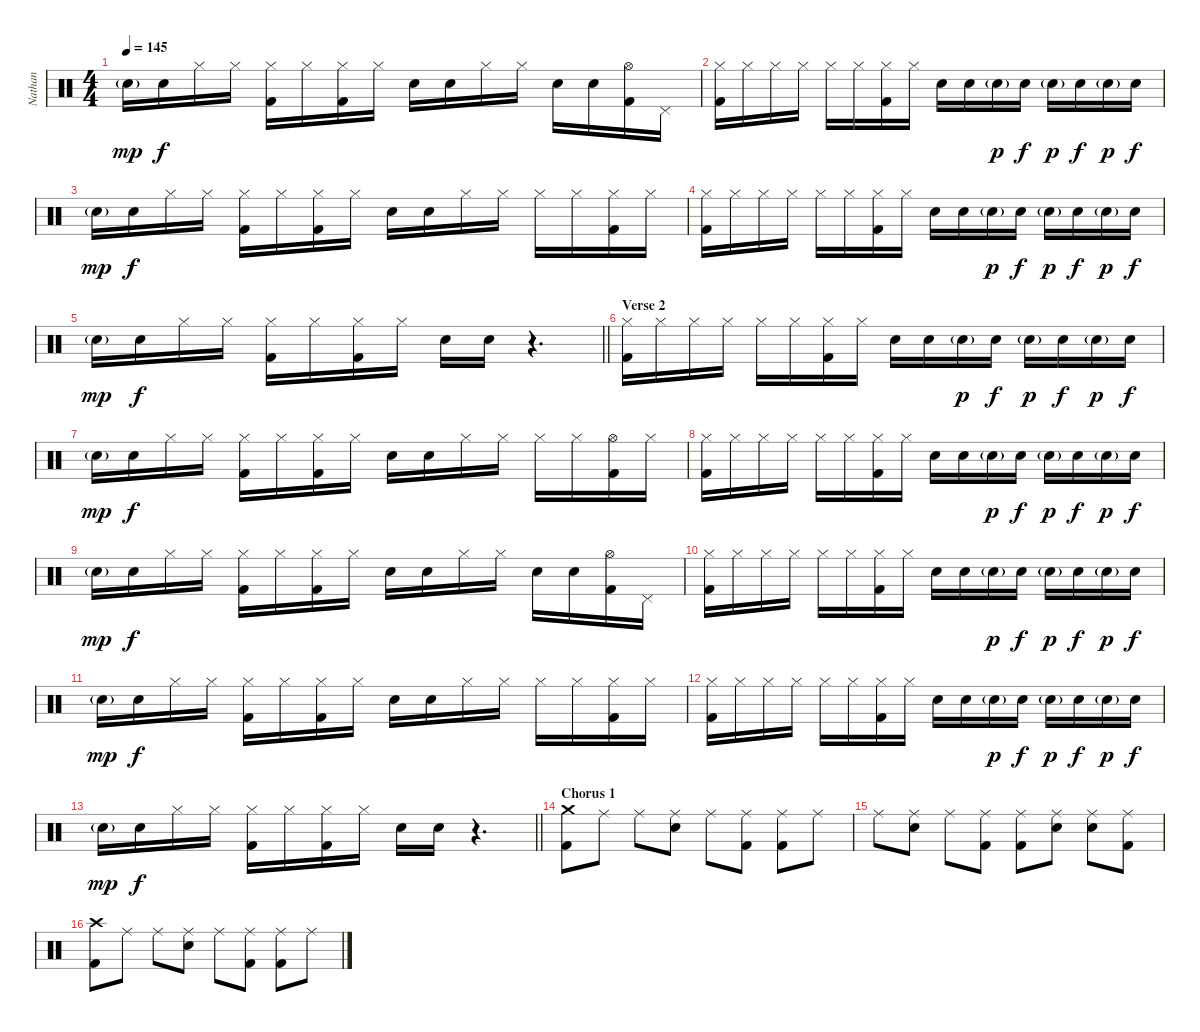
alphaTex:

\track ("Nathan" "Nathan") {instrument percussion}
\staff {score}
\articulation defaults
\ts (4 4)
\tempo 145
\clef neutral
\ks c "Electric Snare (hit)"{g}.16{dy mp} "Electric Snare (hit)".16{dy f} "Hi-Hat (closed)".16 "Hi-Hat (closed)".16
("Hi-Hat (closed)" "Kick (hit) 2").16 "Hi-Hat (closed)".16 ("Hi-Hat (closed)" "Kick (hit) 2").16 "Hi-Hat (closed)".16 "Electric Snare (hit)".16 "Electric Snare (hit)".16 "Hi-Hat (closed)".16 "Hi-Hat (closed)".16 "Electric Snare (hit)".16 "Electric Snare (hit)".16 ("Hi-Hat (open)" "Kick (hit) 2").16 "Pedal Hi-Hat (hit)".16 |
("Hi-Hat (closed)" "Kick (hit) 2").16 "Hi-Hat (closed)".16 "Hi-Hat (closed)".16 "Hi-Hat (closed)".16 "Hi-Hat (closed)".16 "Hi-Hat (closed)".16 ("Hi-Hat (closed)" "Kick (hit) 2").16 "Hi-Hat (closed)".16 "Electric Snare (hit)".16 "Electric Snare (hit)".16 "Electric Snare (hit)"{g}.16{dy p} "Electric Snare (hit)".16{dy f} "Electric Snare (hit)"{g}.16{dy p} "Electric Snare (hit)".16{dy f} "Electric Snare (hit)"{g}.16{dy p} "Electric Snare (hit)".16{dy f} |
"Electric Snare (hit)"{g}.16{dy mp} "Electric Snare (hit)".16{dy f} "Hi-Hat (closed)".16 "Hi-Hat (closed)".16 ("Hi-Hat (closed)" "Kick (hit) 2").16 "Hi-Hat (closed)".16 ("Hi-Hat (closed)" "Kick (hit) 2").16 "Hi-Hat (closed)".16 "Electric Snare (hit)".16 "Electric Snare (hit)".16 "Hi-Hat (closed)".16 "Hi-Hat (closed)".16 "Hi-Hat (closed)".16 "Hi-Hat (closed)".16 ("Hi-Hat (closed)" "Kick (hit) 2").16 "Hi-Hat (closed)".16 |
("Hi-Hat (closed)" "Kick (hit) 2").16 "Hi-Hat (closed)".16 "Hi-Hat (closed)".16 "Hi-Hat (closed)".16 "Hi-Hat (closed)".16 "Hi-Hat (closed)".16 ("Hi-Hat (closed)" "Kick (hit) 2").16 "Hi-Hat (closed)".16 "Electric Snare (hit)".16 "Electric Snare (hit)".16 "Electric Snare (hit)"{g}.16{dy p} "Electric Snare (hit)".16{dy f} "Electric Snare (hit)"{g}.16{dy p} "Electric Snare (hit)".16{dy f} "Electric Snare (hit)"{g}.16{dy p} "Electric Snare (hit)".16{dy f} |
\barLineRight lightlight "Electric Snare (hit)"{g}.16{dy mp} "Electric Snare (hit)".16{dy f} "Hi-Hat (closed)".16 "Hi-Hat (closed)".16
("Hi-Hat (closed)" "Kick (hit) 2").16 "Hi-Hat (closed)".16 ("Hi-Hat (closed)" "Kick (hit) 2").16 "Hi-Hat (closed)".16 "Electric Snare (hit)".16 "Electric Snare (hit)".16 r.4{d} |
\section ("" "Verse 2")
("Hi-Hat (closed)" "Kick (hit) 2").16 "Hi-Hat (closed)".16 "Hi-Hat (closed)".16 "Hi-Hat (closed)".16 "Hi-Hat (closed)".16 "Hi-Hat (closed)".16 ("Hi-Hat (closed)" "Kick (hit) 2").16 "Hi-Hat (closed)".16 "Electric Snare (hit)".16 "Electric Snare (hit)".16 "Electric Snare (hit)"{g}.16{dy p} "Electric Snare (hit)".16{dy f} "Electric Snare (hit)"{g}.16{dy p} "Electric Snare (hit)".16{dy f} "Electric Snare (hit)"{g}.16{dy p} "Electric Snare (hit)".16{dy f} |
"Electric Snare (hit)"{g}.16{dy mp} "Electric Snare (hit)".16{dy f} "Hi-Hat (closed)".16 "Hi-Hat (closed)".16 ("Hi-Hat (closed)" "Kick (hit) 2").16 "Hi-Hat (closed)".16 ("Hi-Hat (closed)" "Kick (hit) 2").16 "Hi-Hat (closed)".16 "Electric Snare (hit)".16 "Electric Snare (hit)".16 "Hi-Hat (closed)".16 "Hi-Hat (closed)".16 "Hi-Hat (closed)".16 "Hi-Hat (closed)".16 ("Hi-Hat (open)" "Kick (hit) 2").16 "Hi-Hat (closed)".16 |
("Hi-Hat (closed)" "Kick (hit) 2").16 "Hi-Hat (closed)".16 "Hi-Hat (closed)".16 "Hi-Hat (closed)".16 "Hi-Hat (closed)".16 "Hi-Hat (closed)".16 ("Hi-Hat (closed)" "Kick (hit) 2").16 "Hi-Hat (closed)".16 "Electric Snare (hit)".16 "Electric Snare (hit)".16 "Electric Snare (hit)"{g}.16{dy p} "Electric Snare (hit)".16{dy f} "Electric Snare (hit)"{g}.16{dy p} "Electric Snare (hit)".16{dy f} "Electric Snare (hit)"{g}.16{dy p} "Electric Snare (hit)".16{dy f} |
"Electric Snare (hit)"{g}.16{dy mp} "Electric Snare (hit)".16{dy f} "Hi-Hat (closed)".16 "Hi-Hat (closed)".16 ("Hi-Hat (closed)" "Kick (hit) 2").16 "Hi-Hat (closed)".16 ("Hi-Hat (closed)" "Kick (hit) 2").16 "Hi-Hat (closed)".16 "Electric Snare (hit)".16 "Electric Snare (hit)".16 "Hi-Hat (closed)".16 "Hi-Hat (closed)".16 "Electric Snare (hit)".16 "Electric Snare (hit)".16 ("Hi-Hat (open)" "Kick (hit) 2").16 "Pedal Hi-Hat (hit)".16 |
("Hi-Hat (closed)" "Kick (hit) 2").16 "Hi-Hat (closed)".16 "Hi-Hat (closed)".16 "Hi-Hat (closed)".16 "Hi-Hat (closed)".16 "Hi-Hat (closed)".16 ("Hi-Hat (closed)" "Kick (hit) 2").16 "Hi-Hat (closed)".16 "Electric Snare (hit)".16 "Electric Snare (hit)".16 "Electric Snare (hit)"{g}.16{dy p} "Electric Snare (hit)".16{dy f} "Electric Snare (hit)"{g}.16{dy p} "Electric Snare (hit)".16{dy f} "Electric Snare (hit)"{g}.16{dy p} "Electric Snare (hit)".16{dy f} |
"Electric Snare (hit)"{g}.16{dy mp} "Electric Snare (hit)".16{dy f} "Hi-Hat (closed)".16 "Hi-Hat (closed)".16 ("Hi-Hat (closed)" "Kick (hit) 2").16 "Hi-Hat (closed)".16 ("Hi-Hat (closed)" "Kick (hit) 2").16 "Hi-Hat (closed)".16 "Electric Snare (hit)".16 "Electric Snare (hit)".16 "Hi-Hat (closed)".16 "Hi-Hat (closed)".16 "Hi-Hat (closed)".16 "Hi-Hat (closed)".16 ("Hi-Hat (closed)" "Kick (hit) 2").16 "Hi-Hat (closed)".16 |
("Hi-Hat (closed)" "Kick (hit) 2").16 "Hi-Hat (closed)".16 "Hi-Hat (closed)".16 "Hi-Hat (closed)".16 "Hi-Hat (closed)".16 "Hi-Hat (closed)".16 ("Hi-Hat (closed)" "Kick (hit) 2").16 "Hi-Hat (closed)".16 "Electric Snare (hit)".16 "Electric Snare (hit)".16 "Electric Snare (hit)"{g}.16{dy p} "Electric Snare (hit)".16{dy f} "Electric Snare (hit)"{g}.16{dy p} "Electric Snare (hit)".16{dy f} "Electric Snare (hit)"{g}.16{dy p} "Electric Snare (hit)".16{dy f} |
\barLineRight lightlight "Electric Snare (hit)"{g}.16{dy mp} "Electric Snare (hit)".16{dy f} "Hi-Hat (closed)".16 "Hi-Hat (closed)".16
("Hi-Hat (closed)" "Kick (hit) 2").16 "Hi-Hat (closed)".16 ("Hi-Hat (closed)" "Kick (hit) 2").16 "Hi-Hat (closed)".16 "Electric Snare (hit)".16 "Electric Snare (hit)".16 r.4{d} |
\section ("" "Chorus 1")
("Crash medium (hit)" "Kick (hit) 2").8 "Ride (middle)".8 "Ride (middle)".8 ("Ride (middle)" "Electric Snare (hit)").8 "Ride (middle)".8 ("Ride (middle)" "Kick (hit) 2").8 ("Ride (middle)" "Kick (hit) 2").8 "Ride (middle)".8 |
"Ride (middle)".8 ("Ride (middle)" "Electric Snare (hit)").8 "Ride (middle)".8 ("Ride (middle)" "Kick (hit) 2").8 ("Ride (middle)" "Kick (hit) 2").8 ("Ride (middle)" "Electric Snare (hit)").8 ("Ride (middle)" "Electric Snare (hit)").8 ("Ride (middle)" "Kick (hit) 2").8 |
("Crash high (hit)" "Kick (hit) 2").8 "Ride (middle)".8 "Ride (middle)".8 ("Ride (middle)" "Electric Snare (hit)").8 "Ride (middle)".8 ("Ride (middle)" "Kick (hit) 2").8 ("Ride (middle)" "Kick (hit) 2").8 "Ride (middle)".8
